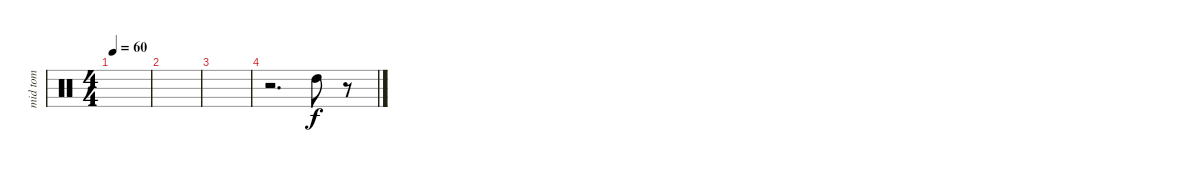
\track ("mid tom" "mid tom") {instrument percussion}
\staff {score}
\articulation defaults
\ts (4 4)
\tempo 60
\clef neutral
\ks c
|
|
|
r.2{d} "High Tom (hit)".8 r.8
